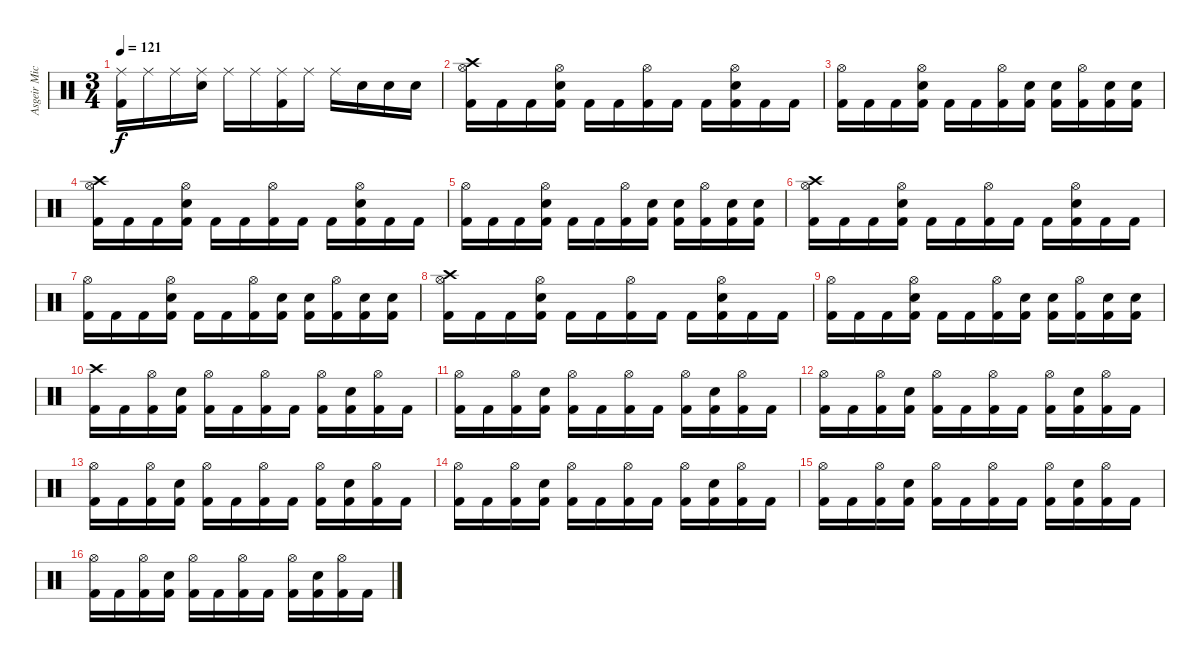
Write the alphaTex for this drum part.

\track ("Asgeir Mickelson" "Asgeir Mic") {instrument percussion}
\staff {score}
\articulation defaults
\ts (3 4)
\tempo 121
\clef neutral
\ks c
("Ride (middle)" "Kick (hit) 2").16{dy f} "Ride (middle)".16 "Ride (middle)".16 ("Ride (middle)" "Electric Snare (hit)").16 "Ride (middle)".16 "Ride (middle)".16 ("Ride (middle)" "Kick (hit) 2").16 "Ride (middle)".16 "Ride (middle)".16 "Electric Snare (hit)".16 "Electric Snare (hit)".16 "Electric Snare (hit)".16 |
("Hi-Hat (open)" "Crash high (hit)" "Kick (hit) 2").16 "Kick (hit) 2".16 "Kick (hit) 2".16 ("Hi-Hat (open)" "Electric Snare (hit)" "Kick (hit) 2").16 "Kick (hit) 2".16 "Kick (hit) 2".16 ("Hi-Hat (open)" "Kick (hit) 2").16 "Kick (hit) 2".16 "Kick (hit) 2".16 ("Hi-Hat (open)" "Electric Snare (hit)" "Kick (hit) 2").16 "Kick (hit) 2".16 "Kick (hit) 2".16 |
("Hi-Hat (open)" "Kick (hit) 2").16 "Kick (hit) 2".16 "Kick (hit) 2".16 ("Hi-Hat (open)" "Electric Snare (hit)" "Kick (hit) 2").16 "Kick (hit) 2".16 "Kick (hit) 2".16 ("Hi-Hat (open)" "Kick (hit) 2").16 ("Electric Snare (hit)" "Kick (hit) 2").16 ("Electric Snare (hit)" "Kick (hit) 2").16 ("Hi-Hat (open)" "Kick (hit) 2").16 ("Electric Snare (hit)" "Kick (hit) 2").16 ("Electric Snare (hit)" "Kick (hit) 2").16 |
("Hi-Hat (open)" "Crash high (hit)" "Kick (hit) 2").16 "Kick (hit) 2".16 "Kick (hit) 2".16 ("Hi-Hat (open)" "Electric Snare (hit)" "Kick (hit) 2").16 "Kick (hit) 2".16 "Kick (hit) 2".16 ("Hi-Hat (open)" "Kick (hit) 2").16 "Kick (hit) 2".16 "Kick (hit) 2".16 ("Hi-Hat (open)" "Electric Snare (hit)" "Kick (hit) 2").16 "Kick (hit) 2".16 "Kick (hit) 2".16 |
("Hi-Hat (open)" "Kick (hit) 2").16 "Kick (hit) 2".16 "Kick (hit) 2".16 ("Hi-Hat (open)" "Electric Snare (hit)" "Kick (hit) 2").16 "Kick (hit) 2".16 "Kick (hit) 2".16 ("Hi-Hat (open)" "Kick (hit) 2").16 ("Electric Snare (hit)" "Kick (hit) 2").16 ("Electric Snare (hit)" "Kick (hit) 2").16 ("Hi-Hat (open)" "Kick (hit) 2").16 ("Electric Snare (hit)" "Kick (hit) 2").16 ("Electric Snare (hit)" "Kick (hit) 2").16 |
("Hi-Hat (open)" "Crash high (hit)" "Kick (hit) 2").16 "Kick (hit) 2".16 "Kick (hit) 2".16 ("Hi-Hat (open)" "Electric Snare (hit)" "Kick (hit) 2").16 "Kick (hit) 2".16 "Kick (hit) 2".16 ("Hi-Hat (open)" "Kick (hit) 2").16 "Kick (hit) 2".16 "Kick (hit) 2".16 ("Hi-Hat (open)" "Electric Snare (hit)" "Kick (hit) 2").16 "Kick (hit) 2".16 "Kick (hit) 2".16 |
("Hi-Hat (open)" "Kick (hit) 2").16 "Kick (hit) 2".16 "Kick (hit) 2".16 ("Hi-Hat (open)" "Electric Snare (hit)" "Kick (hit) 2").16 "Kick (hit) 2".16 "Kick (hit) 2".16 ("Hi-Hat (open)" "Kick (hit) 2").16 ("Electric Snare (hit)" "Kick (hit) 2").16 ("Electric Snare (hit)" "Kick (hit) 2").16 ("Hi-Hat (open)" "Kick (hit) 2").16 ("Electric Snare (hit)" "Kick (hit) 2").16 ("Electric Snare (hit)" "Kick (hit) 2").16 |
("Hi-Hat (open)" "Crash high (hit)" "Kick (hit) 2").16 "Kick (hit) 2".16 "Kick (hit) 2".16 ("Hi-Hat (open)" "Electric Snare (hit)" "Kick (hit) 2").16 "Kick (hit) 2".16 "Kick (hit) 2".16 ("Hi-Hat (open)" "Kick (hit) 2").16 "Kick (hit) 2".16 "Kick (hit) 2".16 ("Hi-Hat (open)" "Electric Snare (hit)" "Kick (hit) 2").16 "Kick (hit) 2".16 "Kick (hit) 2".16 |
("Hi-Hat (open)" "Kick (hit) 2").16 "Kick (hit) 2".16 "Kick (hit) 2".16 ("Hi-Hat (open)" "Electric Snare (hit)" "Kick (hit) 2").16 "Kick (hit) 2".16 "Kick (hit) 2".16 ("Hi-Hat (open)" "Kick (hit) 2").16 ("Electric Snare (hit)" "Kick (hit) 2").16 ("Electric Snare (hit)" "Kick (hit) 2").16 ("Hi-Hat (open)" "Kick (hit) 2").16 ("Electric Snare (hit)" "Kick (hit) 2").16 ("Electric Snare (hit)" "Kick (hit) 2").16 |
("Crash high (hit)" "Kick (hit) 2").16 "Kick (hit) 2".16 ("Hi-Hat (open)" "Kick (hit) 2").16 ("Electric Snare (hit)" "Kick (hit) 2").16 ("Hi-Hat (open)" "Kick (hit) 2").16 "Kick (hit) 2".16 ("Hi-Hat (open)" "Kick (hit) 2").16 "Kick (hit) 2".16 ("Hi-Hat (open)" "Kick (hit) 2").16 ("Electric Snare (hit)" "Kick (hit) 2").16 ("Hi-Hat (open)" "Kick (hit) 2").16 "Kick (hit) 2".16 |
("Hi-Hat (open)" "Kick (hit) 2").16 "Kick (hit) 2".16 ("Hi-Hat (open)" "Kick (hit) 2").16 ("Electric Snare (hit)" "Kick (hit) 2").16 ("Hi-Hat (open)" "Kick (hit) 2").16 "Kick (hit) 2".16 ("Hi-Hat (open)" "Kick (hit) 2").16 "Kick (hit) 2".16 ("Hi-Hat (open)" "Kick (hit) 2").16 ("Electric Snare (hit)" "Kick (hit) 2").16 ("Hi-Hat (open)" "Kick (hit) 2").16 "Kick (hit) 2".16 |
("Hi-Hat (open)" "Kick (hit) 2").16 "Kick (hit) 2".16 ("Hi-Hat (open)" "Kick (hit) 2").16 ("Electric Snare (hit)" "Kick (hit) 2").16 ("Hi-Hat (open)" "Kick (hit) 2").16 "Kick (hit) 2".16 ("Hi-Hat (open)" "Kick (hit) 2").16 "Kick (hit) 2".16 ("Hi-Hat (open)" "Kick (hit) 2").16 ("Electric Snare (hit)" "Kick (hit) 2").16 ("Hi-Hat (open)" "Kick (hit) 2").16 "Kick (hit) 2".16 |
("Hi-Hat (open)" "Kick (hit) 2").16 "Kick (hit) 2".16 ("Hi-Hat (open)" "Kick (hit) 2").16 ("Electric Snare (hit)" "Kick (hit) 2").16 ("Hi-Hat (open)" "Kick (hit) 2").16 "Kick (hit) 2".16 ("Hi-Hat (open)" "Kick (hit) 2").16 "Kick (hit) 2".16 ("Hi-Hat (open)" "Kick (hit) 2").16 ("Electric Snare (hit)" "Kick (hit) 2").16 ("Hi-Hat (open)" "Kick (hit) 2").16 "Kick (hit) 2".16 |
("Hi-Hat (open)" "Kick (hit) 2").16 "Kick (hit) 2".16 ("Hi-Hat (open)" "Kick (hit) 2").16 ("Electric Snare (hit)" "Kick (hit) 2").16 ("Hi-Hat (open)" "Kick (hit) 2").16 "Kick (hit) 2".16 ("Hi-Hat (open)" "Kick (hit) 2").16 "Kick (hit) 2".16 ("Hi-Hat (open)" "Kick (hit) 2").16 ("Electric Snare (hit)" "Kick (hit) 2").16 ("Hi-Hat (open)" "Kick (hit) 2").16 "Kick (hit) 2".16 |
("Hi-Hat (open)" "Kick (hit) 2").16 "Kick (hit) 2".16 ("Hi-Hat (open)" "Kick (hit) 2").16 ("Electric Snare (hit)" "Kick (hit) 2").16 ("Hi-Hat (open)" "Kick (hit) 2").16 "Kick (hit) 2".16 ("Hi-Hat (open)" "Kick (hit) 2").16 "Kick (hit) 2".16 ("Hi-Hat (open)" "Kick (hit) 2").16 ("Electric Snare (hit)" "Kick (hit) 2").16 ("Hi-Hat (open)" "Kick (hit) 2").16 "Kick (hit) 2".16 |
("Hi-Hat (open)" "Kick (hit) 2").16 "Kick (hit) 2".16 ("Hi-Hat (open)" "Kick (hit) 2").16 ("Electric Snare (hit)" "Kick (hit) 2").16 ("Hi-Hat (open)" "Kick (hit) 2").16 "Kick (hit) 2".16 ("Hi-Hat (open)" "Kick (hit) 2").16 "Kick (hit) 2".16 ("Hi-Hat (open)" "Kick (hit) 2").16 ("Electric Snare (hit)" "Kick (hit) 2").16 ("Hi-Hat (open)" "Kick (hit) 2").16 "Kick (hit) 2".16
